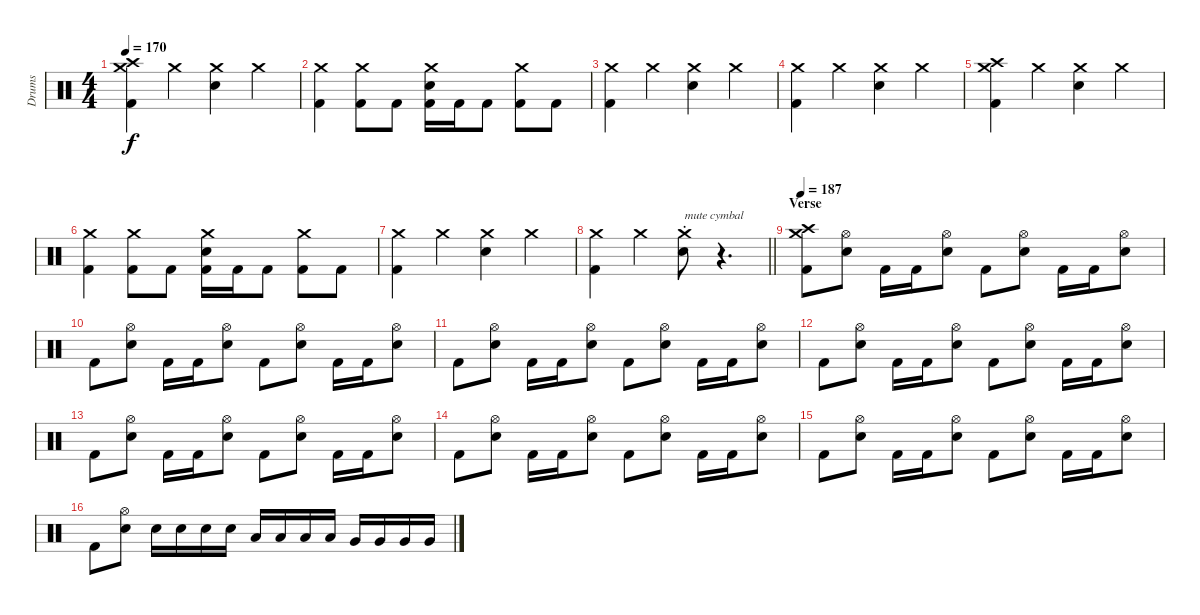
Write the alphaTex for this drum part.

\track ("Drums" "Drums") {instrument percussion}
\staff {score}
\articulation defaults
\ts (4 4)
\tempo 170
\clef neutral
\ks c
("Crash medium (hit)" "Crash high (hit)" "Kick (hit) 2").4{dy f} "Crash medium (hit)".4 ("Crash medium (hit)" "Electric Snare (hit)").4 "Crash medium (hit)".4 |
("Crash medium (hit)" "Kick (hit) 2").4 ("Crash medium (hit)" "Kick (hit) 2").8 "Kick (hit) 2".8 ("Crash medium (hit)" "Electric Snare (hit)" "Kick (hit) 2").16 "Kick (hit) 2".16 "Kick (hit) 2".8 ("Crash medium (hit)" "Kick (hit) 2").8 "Kick (hit) 2".8 |
("Crash medium (hit)" "Kick (hit) 2").4 "Crash medium (hit)".4 ("Crash medium (hit)" "Electric Snare (hit)").4 "Crash medium (hit)".4 |
("Crash medium (hit)" "Kick (hit) 2").4 "Crash medium (hit)".4 ("Crash medium (hit)" "Electric Snare (hit)").4 "Crash medium (hit)".4 |
("Crash medium (hit)" "Crash high (hit)" "Kick (hit) 2").4 "Crash medium (hit)".4 ("Crash medium (hit)" "Electric Snare (hit)").4 "Crash medium (hit)".4 |
("Crash medium (hit)" "Kick (hit) 2").4 ("Crash medium (hit)" "Kick (hit) 2").8 "Kick (hit) 2".8 ("Crash medium (hit)" "Electric Snare (hit)" "Kick (hit) 2").16 "Kick (hit) 2".16 "Kick (hit) 2".8 ("Crash medium (hit)" "Kick (hit) 2").8 "Kick (hit) 2".8 |
("Crash medium (hit)" "Kick (hit) 2").4 "Crash medium (hit)".4 ("Crash medium (hit)" "Electric Snare (hit)").4 "Crash medium (hit)".4 |
\barLineRight lightlight
("Crash medium (hit)" "Kick (hit) 2").4 "Crash medium (hit)".4 ("Crash medium (hit)"{st} "Electric Snare (hit)").8{txt "mute cymbal"} r.4{d volume 0} |
\section ("" "Verse")
\tempo 187
("Crash medium (hit)" "Crash high (hit)" "Kick (hit) 2").8{volume 14} ("Hi-Hat (open)" "Electric Snare (hit)").8 "Kick (hit) 2".16 "Kick (hit) 2".16 ("Hi-Hat (open)" "Electric Snare (hit)").8 "Kick (hit) 2".8 ("Hi-Hat (open)" "Electric Snare (hit)").8 "Kick (hit) 2".16 "Kick (hit) 2".16 ("Hi-Hat (open)" "Electric Snare (hit)").8 |
"Kick (hit) 2".8 ("Hi-Hat (open)" "Electric Snare (hit)").8 "Kick (hit) 2".16 "Kick (hit) 2".16 ("Hi-Hat (open)" "Electric Snare (hit)").8 "Kick (hit) 2".8 ("Hi-Hat (open)" "Electric Snare (hit)").8 "Kick (hit) 2".16 "Kick (hit) 2".16 ("Hi-Hat (open)" "Electric Snare (hit)").8 |
"Kick (hit) 2".8 ("Hi-Hat (open)" "Electric Snare (hit)").8 "Kick (hit) 2".16 "Kick (hit) 2".16 ("Hi-Hat (open)" "Electric Snare (hit)").8 "Kick (hit) 2".8 ("Hi-Hat (open)" "Electric Snare (hit)").8 "Kick (hit) 2".16 "Kick (hit) 2".16 ("Hi-Hat (open)" "Electric Snare (hit)").8 |
"Kick (hit) 2".8 ("Hi-Hat (open)" "Electric Snare (hit)").8 "Kick (hit) 2".16 "Kick (hit) 2".16 ("Hi-Hat (open)" "Electric Snare (hit)").8 "Kick (hit) 2".8 ("Hi-Hat (open)" "Electric Snare (hit)").8 "Kick (hit) 2".16 "Kick (hit) 2".16 ("Hi-Hat (open)" "Electric Snare (hit)").8 |
"Kick (hit) 2".8 ("Hi-Hat (open)" "Electric Snare (hit)").8 "Kick (hit) 2".16 "Kick (hit) 2".16 ("Hi-Hat (open)" "Electric Snare (hit)").8 "Kick (hit) 2".8 ("Hi-Hat (open)" "Electric Snare (hit)").8 "Kick (hit) 2".16 "Kick (hit) 2".16 ("Hi-Hat (open)" "Electric Snare (hit)").8 |
"Kick (hit) 2".8 ("Hi-Hat (open)" "Electric Snare (hit)").8 "Kick (hit) 2".16 "Kick (hit) 2".16 ("Hi-Hat (open)" "Electric Snare (hit)").8 "Kick (hit) 2".8 ("Hi-Hat (open)" "Electric Snare (hit)").8 "Kick (hit) 2".16 "Kick (hit) 2".16 ("Hi-Hat (open)" "Electric Snare (hit)").8 |
"Kick (hit) 2".8 ("Hi-Hat (open)" "Electric Snare (hit)").8 "Kick (hit) 2".16 "Kick (hit) 2".16 ("Hi-Hat (open)" "Electric Snare (hit)").8 "Kick (hit) 2".8 ("Hi-Hat (open)" "Electric Snare (hit)").8 "Kick (hit) 2".16 "Kick (hit) 2".16 ("Hi-Hat (open)" "Electric Snare (hit)").8 |
"Kick (hit) 2".8 ("Hi-Hat (open)" "Electric Snare (hit)").8 "Electric Snare (hit)".16 "Electric Snare (hit)".16 "Electric Snare (hit)".16 "Electric Snare (hit)".16 "Low Tom (hit)".16 "Low Tom (hit)".16 "Low Tom (hit)".16 "Low Tom (hit)".16 "Very Low Tom (hit)".16 "Very Low Tom (hit)".16 "Very Low Tom (hit)".16 "Very Low Tom (hit)".16
